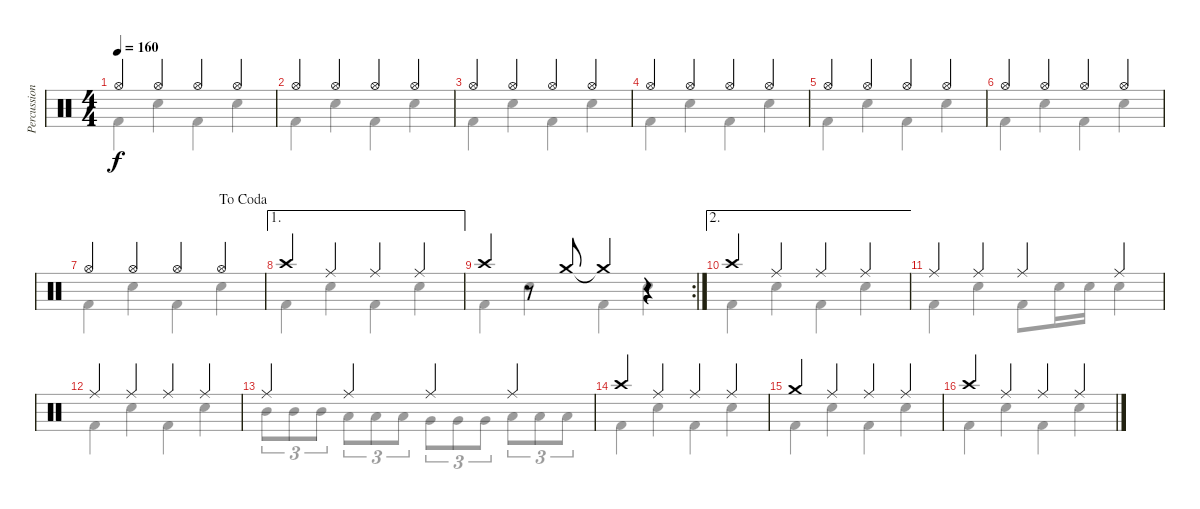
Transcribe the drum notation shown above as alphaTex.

\track ("Percussion" "Percussion") {instrument percussion}
\staff {score}
\articulation defaults
\voice
\ts (4 4)
\tempo 160
\clef neutral
\ks c "Hi-Hat (open)".4{dy f} "Hi-Hat (open)".4 "Hi-Hat (open)".4 "Hi-Hat (open)".4
|
"Hi-Hat (open)".4 "Hi-Hat (open)".4 "Hi-Hat (open)".4 "Hi-Hat (open)".4 |
"Hi-Hat (open)".4 "Hi-Hat (open)".4 "Hi-Hat (open)".4 "Hi-Hat (open)".4 |
"Hi-Hat (open)".4 "Hi-Hat (open)".4 "Hi-Hat (open)".4 "Hi-Hat (open)".4 |
"Hi-Hat (open)".4 "Hi-Hat (open)".4 "Hi-Hat (open)".4 "Hi-Hat (open)".4 |
"Hi-Hat (open)".4 "Hi-Hat (open)".4 "Hi-Hat (open)".4 "Hi-Hat (open)".4 |
\jump dacoda "Hi-Hat (open)".4 "Hi-Hat (open)".4 "Hi-Hat (open)".4 "Hi-Hat (open)".4
|
\ae 1 "Crash high (hit)".4 "Ride (middle)".4 "Ride (middle)".4 "Ride (middle)".4
|
\rc 2 "Crash high (hit)".4
r.8 "Crash medium (hit)".8 "Crash medium (hit)"{t}.4 r.4 |
\ae 2 "Crash high (hit)".4 "Ride (middle)".4 "Ride (middle)".4 "Ride (middle)".4
|
"Ride (middle)".4 "Ride (middle)".4 "Ride (middle)".4 "Ride (middle)".4 |
"Ride (middle)".4 "Ride (middle)".4 "Ride (middle)".4 "Ride (middle)".4 |
"Ride (middle)".4 "Ride (middle)".4 "Ride (middle)".4 "Ride (middle)".4 |
"Crash high (hit)".4 "Ride (middle)".4 "Ride (middle)".4 "Ride (middle)".4 |
"Crash medium (hit)".4 "Ride (middle)".4 "Ride (middle)".4 "Ride (middle)".4 |
"Crash high (hit)".4 "Ride (middle)".4 "Ride (middle)".4 "Ride (middle)".4
\voice
\clef neutral
\ottava regular
\simile none
\ks c "Kick (hit) 2".4{dy f} "Snare (hit) 2".4 "Kick (hit) 2".4 "Snare (hit) 2".4
|
"Kick (hit) 2".4 "Snare (hit) 2".4 "Kick (hit) 2".4 "Snare (hit) 2".4 |
"Kick (hit) 2".4 "Snare (hit) 2".4 "Kick (hit) 2".4 "Snare (hit) 2".4 |
"Kick (hit) 2".4 "Snare (hit) 2".4 "Kick (hit) 2".4 "Snare (hit) 2".4 |
"Kick (hit) 2".4 "Snare (hit) 2".4 "Kick (hit) 2".4 "Snare (hit) 2".4 |
"Kick (hit) 2".4 "Snare (hit) 2".4 "Kick (hit) 2".4 "Snare (hit) 2".4 |
"Kick (hit) 2".4 "Snare (hit) 2".4 "Kick (hit) 2".4 "Snare (hit) 2".4 |
"Kick (hit) 2".4 "Snare (hit) 2".4 "Kick (hit) 2".4 "Snare (hit) 2".4 |
"Kick (hit) 2".4 "Snare (hit) 2".4 "Kick (hit) 2".4 "Snare (hit) 2".4 |
"Kick (hit) 2".4 "Snare (hit) 2".4 "Kick (hit) 2".4 "Snare (hit) 2".4 |
"Kick (hit) 2".4 "Snare (hit) 2".4 "Kick (hit) 2".8 "Snare (hit) 2".16 "Snare (hit) 2".16 "Snare (hit) 2".4 |
"Kick (hit) 2".4 "Snare (hit) 2".4 "Kick (hit) 2".4 "Snare (hit) 2".4 |
"Mid Tom (hit)".8{tu (3 2)} "Mid Tom (hit)".8{tu (3 2)} "Mid Tom (hit)".8{tu (3 2)} "Low Tom (hit)".8{tu (3 2)} "Low Tom (hit)".8{tu (3 2)} "Low Tom (hit)".8{tu (3 2)} "Very Low Tom (hit)".8{tu (3 2)} "Very Low Tom (hit)".8{tu (3 2)} "Very Low Tom (hit)".8{tu (3 2)} "Low Floor Tom (hit)".8{tu (3 2)} "Low Floor Tom (hit)".8{tu (3 2)} "Low Floor Tom (hit)".8{tu (3 2)} |
"Kick (hit) 2".4 "Snare (hit) 2".4 "Kick (hit) 2".4 "Snare (hit) 2".4 |
"Kick (hit) 2".4 "Snare (hit) 2".4 "Kick (hit) 2".4 "Snare (hit) 2".4 |
"Kick (hit) 2".4 "Snare (hit) 2".4 "Kick (hit) 2".4 "Snare (hit) 2".4
